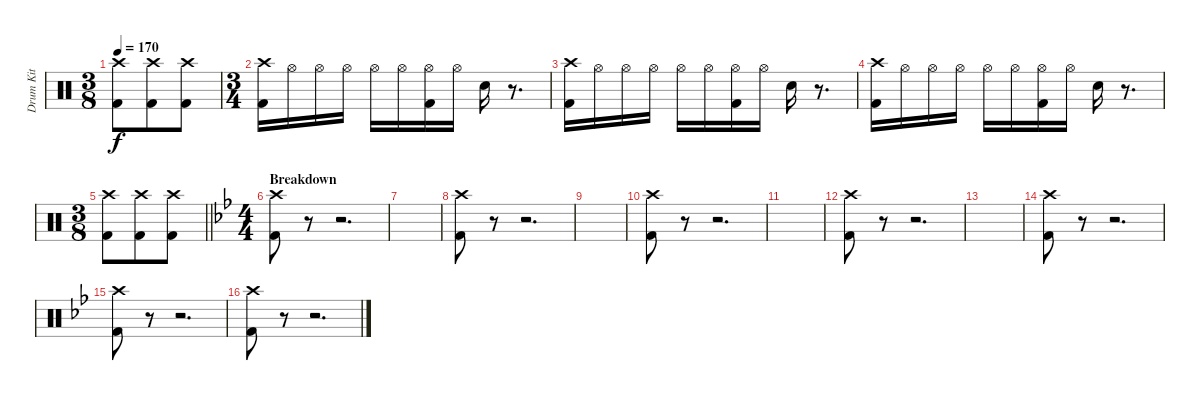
\track ("Drum Kit" "Drum Kit") {mute instrument percussion}
\staff {score}
\articulation defaults
\ts (3 8)
\tempo 170
\clef neutral
\ks c
("Crash high (hit)" "Kick (hit) 2").8{dy f} ("Crash high (hit)" "Kick (hit) 2").8 ("Crash high (hit)" "Kick (hit) 2").8 |
\ts (3 4)
("Kick (hit) 2" "Crash high (hit)").16 "Hi-Hat (open)".16 "Hi-Hat (open)".16 "Hi-Hat (open)".16 "Hi-Hat (open)".16 "Hi-Hat (open)".16 ("Hi-Hat (open)" "Kick (hit) 2").16 "Hi-Hat (open)".16 "Electric Snare (hit)".16 r.8{d} |
("Kick (hit) 2" "Crash high (hit)").16 "Hi-Hat (open)".16 "Hi-Hat (open)".16 "Hi-Hat (open)".16 "Hi-Hat (open)".16 "Hi-Hat (open)".16 ("Hi-Hat (open)" "Kick (hit) 2").16 "Hi-Hat (open)".16 "Electric Snare (hit)".16 r.8{d} |
("Kick (hit) 2" "Crash high (hit)").16 "Hi-Hat (open)".16 "Hi-Hat (open)".16 "Hi-Hat (open)".16 "Hi-Hat (open)".16 "Hi-Hat (open)".16 ("Hi-Hat (open)" "Kick (hit) 2").16 "Hi-Hat (open)".16 "Electric Snare (hit)".16 r.8{d} |
\ts (3 8)
\barLineRight lightlight
("Crash high (hit)" "Kick (hit) 2").8 ("Crash high (hit)" "Kick (hit) 2").8 ("Crash high (hit)" "Kick (hit) 2").8 |
\ts (4 4)
\section ("" "Breakdown")
\ks bb
("Crash high (hit)" "Kick (hit) 2").8 r.8 r.2{d} |
|
("Crash high (hit)" "Kick (hit) 2").8 r.8 r.2{d} |
|
("Crash high (hit)" "Kick (hit) 2").8 r.8 r.2{d} |
|
("Crash high (hit)" "Kick (hit) 2").8 r.8 r.2{d} |
|
("Crash high (hit)" "Kick (hit) 2").8 r.8 r.2{d} |
("Crash high (hit)" "Kick (hit) 2").8 r.8 r.2{d} |
("Crash high (hit)" "Kick (hit) 2").8 r.8 r.2{d}
